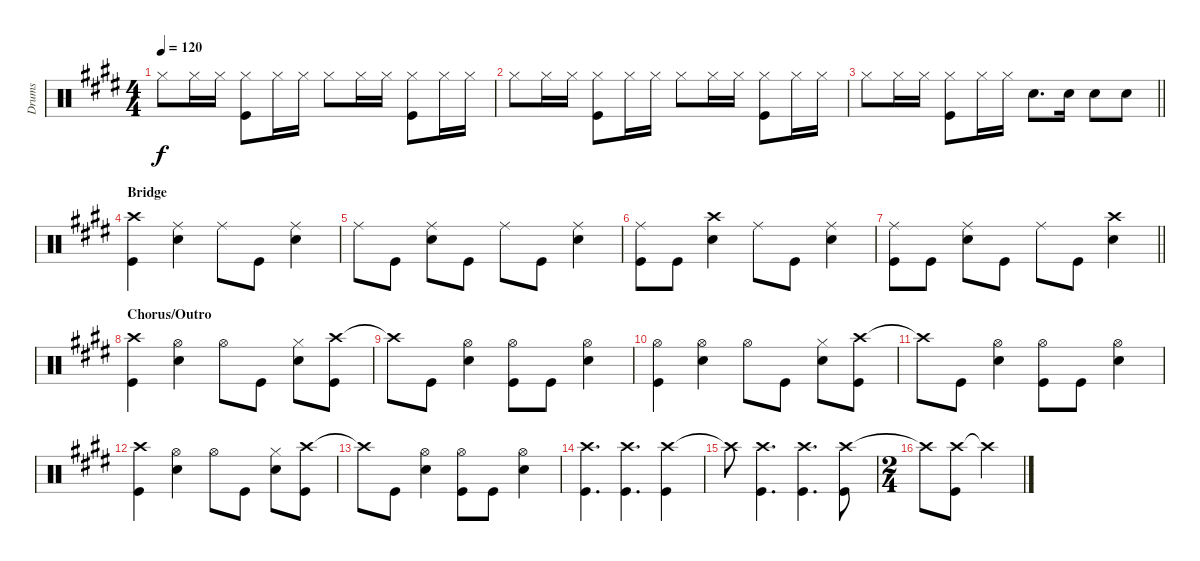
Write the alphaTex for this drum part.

\track ("Drums" "Drums") {instrument percussion}
\staff {score}
\articulation defaults
\ts (4 4)
\tempo 120
\clef neutral
\ks e "Hi-Hat (closed)".8{dy f} "Hi-Hat (closed)".16 "Hi-Hat (closed)".16
("Hi-Hat (closed)" "Kick (hit)").8 "Hi-Hat (closed)".16 "Hi-Hat (closed)".16 "Hi-Hat (closed)".8 "Hi-Hat (closed)".16 "Hi-Hat (closed)".16 ("Hi-Hat (closed)" "Kick (hit)").8 "Hi-Hat (closed)".16 "Hi-Hat (closed)".16 |
"Hi-Hat (closed)".8 "Hi-Hat (closed)".16 "Hi-Hat (closed)".16 ("Hi-Hat (closed)" "Kick (hit)").8 "Hi-Hat (closed)".16 "Hi-Hat (closed)".16 "Hi-Hat (closed)".8 "Hi-Hat (closed)".16 "Hi-Hat (closed)".16 ("Hi-Hat (closed)" "Kick (hit)").8 "Hi-Hat (closed)".16 "Hi-Hat (closed)".16 |
\barLineRight lightlight "Hi-Hat (closed)".8 "Hi-Hat (closed)".16 "Hi-Hat (closed)".16
("Hi-Hat (closed)" "Kick (hit)").8 "Hi-Hat (closed)".16 "Hi-Hat (closed)".16 "Snare (hit) 2".8{d} "Snare (hit) 2".16 "Snare (hit) 2".8 "Snare (hit) 2".8 |
\section ("" "Bridge")
("Crash high (hit)" "Kick (hit)").4 ("Ride (middle)" "Snare (hit) 2").4 "Ride (middle)".8 "Kick (hit)".8 ("Ride (middle)" "Snare (hit) 2").4 |
"Ride (middle)".8 "Kick (hit)".8 ("Ride (middle)" "Snare (hit) 2").8 "Kick (hit)".8 "Ride (middle)".8 "Kick (hit)".8 ("Ride (middle)" "Snare (hit) 2").4 |
("Ride (middle)" "Kick (hit)").8 "Kick (hit)".8 ("Crash high (hit)" "Snare (hit) 2").4 "Ride (middle)".8 "Kick (hit)".8 ("Ride (middle)" "Snare (hit) 2").4 |
\barLineRight lightlight
("Ride (middle)" "Kick (hit)").8 "Kick (hit)".8 ("Ride (middle)" "Snare (hit) 2").8 "Kick (hit)".8 "Ride (middle)".8 "Kick (hit)".8 ("Crash high (hit)" "Snare (hit) 2").4 |
\section ("" "Chorus/Outro")
("Crash high (hit)" "Kick (hit)").4 ("Hi-Hat (open)" "Snare (hit) 2").4 "Hi-Hat (open)".8 "Kick (hit)".8 ("Hi-Hat (closed)" "Snare (hit) 2").8 ("Crash high (hit)" "Kick (hit)").8 |
"Crash high (hit)"{t}.8 "Kick (hit)".8 ("Hi-Hat (open)" "Snare (hit) 2").4 ("Hi-Hat (open)" "Kick (hit)").8 "Kick (hit)".8 ("Hi-Hat (open)" "Snare (hit) 2").4 |
("Hi-Hat (open)" "Kick (hit)").4 ("Hi-Hat (open)" "Snare (hit) 2").4 "Hi-Hat (open)".8 "Kick (hit)".8 ("Hi-Hat (closed)" "Snare (hit) 2").8 ("Crash high (hit)" "Kick (hit)").8 |
"Crash high (hit)"{t}.8 "Kick (hit)".8 ("Hi-Hat (open)" "Snare (hit) 2").4 ("Hi-Hat (open)" "Kick (hit)").8 "Kick (hit)".8 ("Hi-Hat (open)" "Snare (hit) 2").4 |
("Crash high (hit)" "Kick (hit)").4 ("Hi-Hat (open)" "Snare (hit) 2").4 "Hi-Hat (open)".8 "Kick (hit)".8 ("Hi-Hat (closed)" "Snare (hit) 2").8 ("Crash high (hit)" "Kick (hit)").8 |
"Crash high (hit)"{t}.8 "Kick (hit)".8 ("Hi-Hat (open)" "Snare (hit) 2").4 ("Hi-Hat (open)" "Kick (hit)").8 "Kick (hit)".8 ("Hi-Hat (open)" "Snare (hit) 2").4 |
("Crash high (hit)" "Kick (hit)").4{d} ("Crash high (hit)" "Kick (hit)").4{d} ("Crash high (hit)" "Kick (hit)").4 |
"Crash high (hit)"{t}.8 ("Crash high (hit)" "Kick (hit)").4{d} ("Crash high (hit)" "Kick (hit)").4{d} ("Crash high (hit)" "Kick (hit)").8 |
\ts (2 4)
"Crash high (hit)"{t}.8 ("Crash high (hit)" "Kick (hit)").8 "Crash high (hit)"{t}.4
